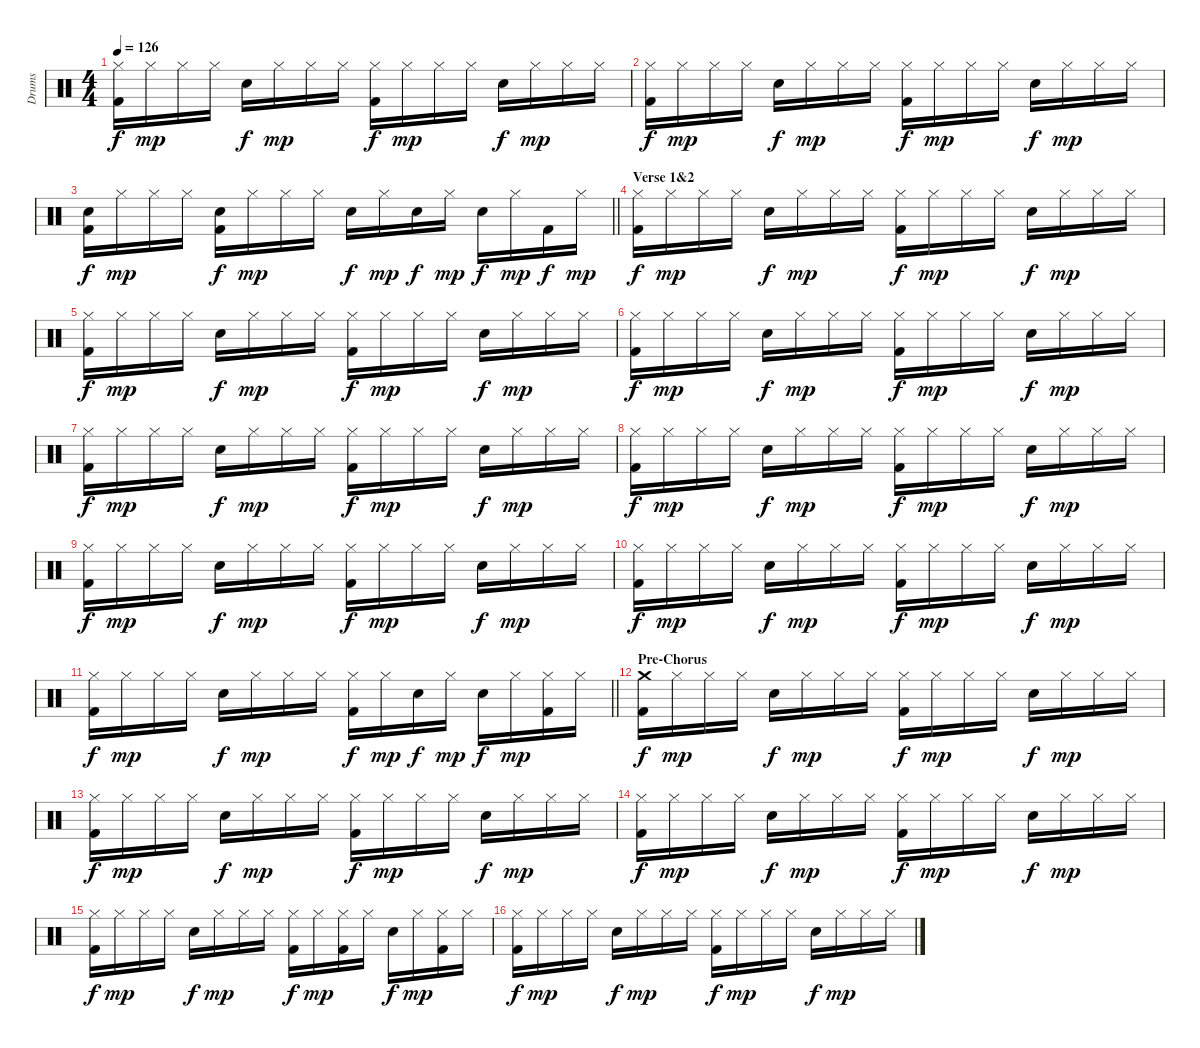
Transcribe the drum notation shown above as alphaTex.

\track ("Drums" "Drums") {instrument percussion}
\staff {score}
\articulation defaults
\ts (4 4)
\tempo 126
\clef neutral
\ks c
("Hi-Hat (closed)" "Kick (hit) 2").16{dy f} "Hi-Hat (closed)".16{dy mp} "Hi-Hat (closed)".16 "Hi-Hat (closed)".16 "Snare (hit) 2".16{dy f} "Hi-Hat (closed)".16{dy mp} "Hi-Hat (closed)".16 "Hi-Hat (closed)".16 ("Hi-Hat (closed)" "Kick (hit) 2").16{dy f} "Hi-Hat (closed)".16{dy mp} "Hi-Hat (closed)".16 "Hi-Hat (closed)".16 "Snare (hit) 2".16{dy f} "Hi-Hat (closed)".16{dy mp} "Hi-Hat (closed)".16 "Hi-Hat (closed)".16 |
("Hi-Hat (closed)" "Kick (hit) 2").16{dy f} "Hi-Hat (closed)".16{dy mp} "Hi-Hat (closed)".16 "Hi-Hat (closed)".16 "Snare (hit) 2".16{dy f} "Hi-Hat (closed)".16{dy mp} "Hi-Hat (closed)".16 "Hi-Hat (closed)".16 ("Hi-Hat (closed)" "Kick (hit) 2").16{dy f} "Hi-Hat (closed)".16{dy mp} "Hi-Hat (closed)".16 "Hi-Hat (closed)".16 "Snare (hit) 2".16{dy f} "Hi-Hat (closed)".16{dy mp} "Hi-Hat (closed)".16 "Hi-Hat (closed)".16 |
\barLineRight lightlight
("Snare (hit) 2" "Kick (hit) 2").16{dy f} "Hi-Hat (closed)".16{dy mp} "Hi-Hat (closed)".16 "Hi-Hat (closed)".16 ("Snare (hit) 2" "Kick (hit) 2").16{dy f} "Hi-Hat (closed)".16{dy mp} "Hi-Hat (closed)".16 "Hi-Hat (closed)".16 "Snare (hit) 2".16{dy f} "Hi-Hat (closed)".16{dy mp} "Snare (hit) 2".16{dy f} "Hi-Hat (closed)".16{dy mp} "Snare (hit) 2".16{dy f} "Hi-Hat (closed)".16{dy mp} "Kick (hit) 2".16{dy f} "Hi-Hat (closed)".16{dy mp} |
\section ("" "Verse 1&2")
("Hi-Hat (closed)" "Kick (hit) 2").16{dy f} "Hi-Hat (closed)".16{dy mp} "Hi-Hat (closed)".16 "Hi-Hat (closed)".16 "Snare (hit) 2".16{dy f} "Hi-Hat (closed)".16{dy mp} "Hi-Hat (closed)".16 "Hi-Hat (closed)".16 ("Hi-Hat (closed)" "Kick (hit) 2").16{dy f} "Hi-Hat (closed)".16{dy mp} "Hi-Hat (closed)".16 "Hi-Hat (closed)".16 "Snare (hit) 2".16{dy f} "Hi-Hat (closed)".16{dy mp} "Hi-Hat (closed)".16 "Hi-Hat (closed)".16 |
("Hi-Hat (closed)" "Kick (hit) 2").16{dy f} "Hi-Hat (closed)".16{dy mp} "Hi-Hat (closed)".16 "Hi-Hat (closed)".16 "Snare (hit) 2".16{dy f} "Hi-Hat (closed)".16{dy mp} "Hi-Hat (closed)".16 "Hi-Hat (closed)".16 ("Hi-Hat (closed)" "Kick (hit) 2").16{dy f} "Hi-Hat (closed)".16{dy mp} "Hi-Hat (closed)".16 "Hi-Hat (closed)".16 "Snare (hit) 2".16{dy f} "Hi-Hat (closed)".16{dy mp} "Hi-Hat (closed)".16 "Hi-Hat (closed)".16 |
("Hi-Hat (closed)" "Kick (hit) 2").16{dy f} "Hi-Hat (closed)".16{dy mp} "Hi-Hat (closed)".16 "Hi-Hat (closed)".16 "Snare (hit) 2".16{dy f} "Hi-Hat (closed)".16{dy mp} "Hi-Hat (closed)".16 "Hi-Hat (closed)".16 ("Hi-Hat (closed)" "Kick (hit) 2").16{dy f} "Hi-Hat (closed)".16{dy mp} "Hi-Hat (closed)".16 "Hi-Hat (closed)".16 "Snare (hit) 2".16{dy f} "Hi-Hat (closed)".16{dy mp} "Hi-Hat (closed)".16 "Hi-Hat (closed)".16 |
("Hi-Hat (closed)" "Kick (hit) 2").16{dy f} "Hi-Hat (closed)".16{dy mp} "Hi-Hat (closed)".16 "Hi-Hat (closed)".16 "Snare (hit) 2".16{dy f} "Hi-Hat (closed)".16{dy mp} "Hi-Hat (closed)".16 "Hi-Hat (closed)".16 ("Hi-Hat (closed)" "Kick (hit) 2").16{dy f} "Hi-Hat (closed)".16{dy mp} "Hi-Hat (closed)".16 "Hi-Hat (closed)".16 "Snare (hit) 2".16{dy f} "Hi-Hat (closed)".16{dy mp} "Hi-Hat (closed)".16 "Hi-Hat (closed)".16 |
("Hi-Hat (closed)" "Kick (hit) 2").16{dy f} "Hi-Hat (closed)".16{dy mp} "Hi-Hat (closed)".16 "Hi-Hat (closed)".16 "Snare (hit) 2".16{dy f} "Hi-Hat (closed)".16{dy mp} "Hi-Hat (closed)".16 "Hi-Hat (closed)".16 ("Hi-Hat (closed)" "Kick (hit) 2").16{dy f} "Hi-Hat (closed)".16{dy mp} "Hi-Hat (closed)".16 "Hi-Hat (closed)".16 "Snare (hit) 2".16{dy f} "Hi-Hat (closed)".16{dy mp} "Hi-Hat (closed)".16 "Hi-Hat (closed)".16 |
("Hi-Hat (closed)" "Kick (hit) 2").16{dy f} "Hi-Hat (closed)".16{dy mp} "Hi-Hat (closed)".16 "Hi-Hat (closed)".16 "Snare (hit) 2".16{dy f} "Hi-Hat (closed)".16{dy mp} "Hi-Hat (closed)".16 "Hi-Hat (closed)".16 ("Hi-Hat (closed)" "Kick (hit) 2").16{dy f} "Hi-Hat (closed)".16{dy mp} "Hi-Hat (closed)".16 "Hi-Hat (closed)".16 "Snare (hit) 2".16{dy f} "Hi-Hat (closed)".16{dy mp} "Hi-Hat (closed)".16 "Hi-Hat (closed)".16 |
("Hi-Hat (closed)" "Kick (hit) 2").16{dy f} "Hi-Hat (closed)".16{dy mp} "Hi-Hat (closed)".16 "Hi-Hat (closed)".16 "Snare (hit) 2".16{dy f} "Hi-Hat (closed)".16{dy mp} "Hi-Hat (closed)".16 "Hi-Hat (closed)".16 ("Hi-Hat (closed)" "Kick (hit) 2").16{dy f} "Hi-Hat (closed)".16{dy mp} "Hi-Hat (closed)".16 "Hi-Hat (closed)".16 "Snare (hit) 2".16{dy f} "Hi-Hat (closed)".16{dy mp} "Hi-Hat (closed)".16 "Hi-Hat (closed)".16 |
\barLineRight lightlight
("Hi-Hat (closed)" "Kick (hit) 2").16{dy f} "Hi-Hat (closed)".16{dy mp} "Hi-Hat (closed)".16 "Hi-Hat (closed)".16 "Snare (hit) 2".16{dy f} "Hi-Hat (closed)".16{dy mp} "Hi-Hat (closed)".16 "Hi-Hat (closed)".16 ("Hi-Hat (closed)" "Kick (hit) 2").16{dy f} "Hi-Hat (closed)".16{dy mp} "Snare (hit) 2".16{dy f} "Hi-Hat (closed)".16{dy mp} "Snare (hit) 2".16{dy f} "Hi-Hat (closed)".16{dy mp} ("Hi-Hat (closed)" "Kick (hit) 2").16 "Hi-Hat (closed)".16 |
\section ("" "Pre-Chorus")
("Crash medium (hit)" "Kick (hit) 2").16{dy f} "Hi-Hat (closed)".16{dy mp} "Hi-Hat (closed)".16 "Hi-Hat (closed)".16 "Snare (hit) 2".16{dy f} "Hi-Hat (closed)".16{dy mp} "Hi-Hat (closed)".16 "Hi-Hat (closed)".16 ("Hi-Hat (closed)" "Kick (hit) 2").16{dy f} "Hi-Hat (closed)".16{dy mp} "Hi-Hat (closed)".16 "Hi-Hat (closed)".16 "Snare (hit) 2".16{dy f} "Hi-Hat (closed)".16{dy mp} "Hi-Hat (closed)".16 "Hi-Hat (closed)".16 |
("Hi-Hat (closed)" "Kick (hit) 2").16{dy f} "Hi-Hat (closed)".16{dy mp} "Hi-Hat (closed)".16 "Hi-Hat (closed)".16 "Snare (hit) 2".16{dy f} "Hi-Hat (closed)".16{dy mp} "Hi-Hat (closed)".16 "Hi-Hat (closed)".16 ("Hi-Hat (closed)" "Kick (hit) 2").16{dy f} "Hi-Hat (closed)".16{dy mp} "Hi-Hat (closed)".16 "Hi-Hat (closed)".16 "Snare (hit) 2".16{dy f} "Hi-Hat (closed)".16{dy mp} "Hi-Hat (closed)".16 "Hi-Hat (closed)".16 |
("Hi-Hat (closed)" "Kick (hit) 2").16{dy f} "Hi-Hat (closed)".16{dy mp} "Hi-Hat (closed)".16 "Hi-Hat (closed)".16 "Snare (hit) 2".16{dy f} "Hi-Hat (closed)".16{dy mp} "Hi-Hat (closed)".16 "Hi-Hat (closed)".16 ("Hi-Hat (closed)" "Kick (hit) 2").16{dy f} "Hi-Hat (closed)".16{dy mp} "Hi-Hat (closed)".16 "Hi-Hat (closed)".16 "Snare (hit) 2".16{dy f} "Hi-Hat (closed)".16{dy mp} "Hi-Hat (closed)".16 "Hi-Hat (closed)".16 |
("Hi-Hat (closed)" "Kick (hit) 2").16{dy f} "Hi-Hat (closed)".16{dy mp} "Hi-Hat (closed)".16 "Hi-Hat (closed)".16 "Snare (hit) 2".16{dy f} "Hi-Hat (closed)".16{dy mp} "Hi-Hat (closed)".16 "Hi-Hat (closed)".16 ("Hi-Hat (closed)" "Kick (hit) 2").16{dy f} "Hi-Hat (closed)".16{dy mp} ("Hi-Hat (closed)" "Kick (hit) 2").16 "Hi-Hat (closed)".16 "Snare (hit) 2".16{dy f} "Hi-Hat (closed)".16{dy mp} ("Hi-Hat (closed)" "Kick (hit) 2").16 "Hi-Hat (closed)".16 |
("Hi-Hat (closed)" "Kick (hit) 2").16{dy f} "Hi-Hat (closed)".16{dy mp} "Hi-Hat (closed)".16 "Hi-Hat (closed)".16 "Snare (hit) 2".16{dy f} "Hi-Hat (closed)".16{dy mp} "Hi-Hat (closed)".16 "Hi-Hat (closed)".16 ("Hi-Hat (closed)" "Kick (hit) 2").16{dy f} "Hi-Hat (closed)".16{dy mp} "Hi-Hat (closed)".16 "Hi-Hat (closed)".16 "Snare (hit) 2".16{dy f} "Hi-Hat (closed)".16{dy mp} "Hi-Hat (closed)".16 "Hi-Hat (closed)".16
